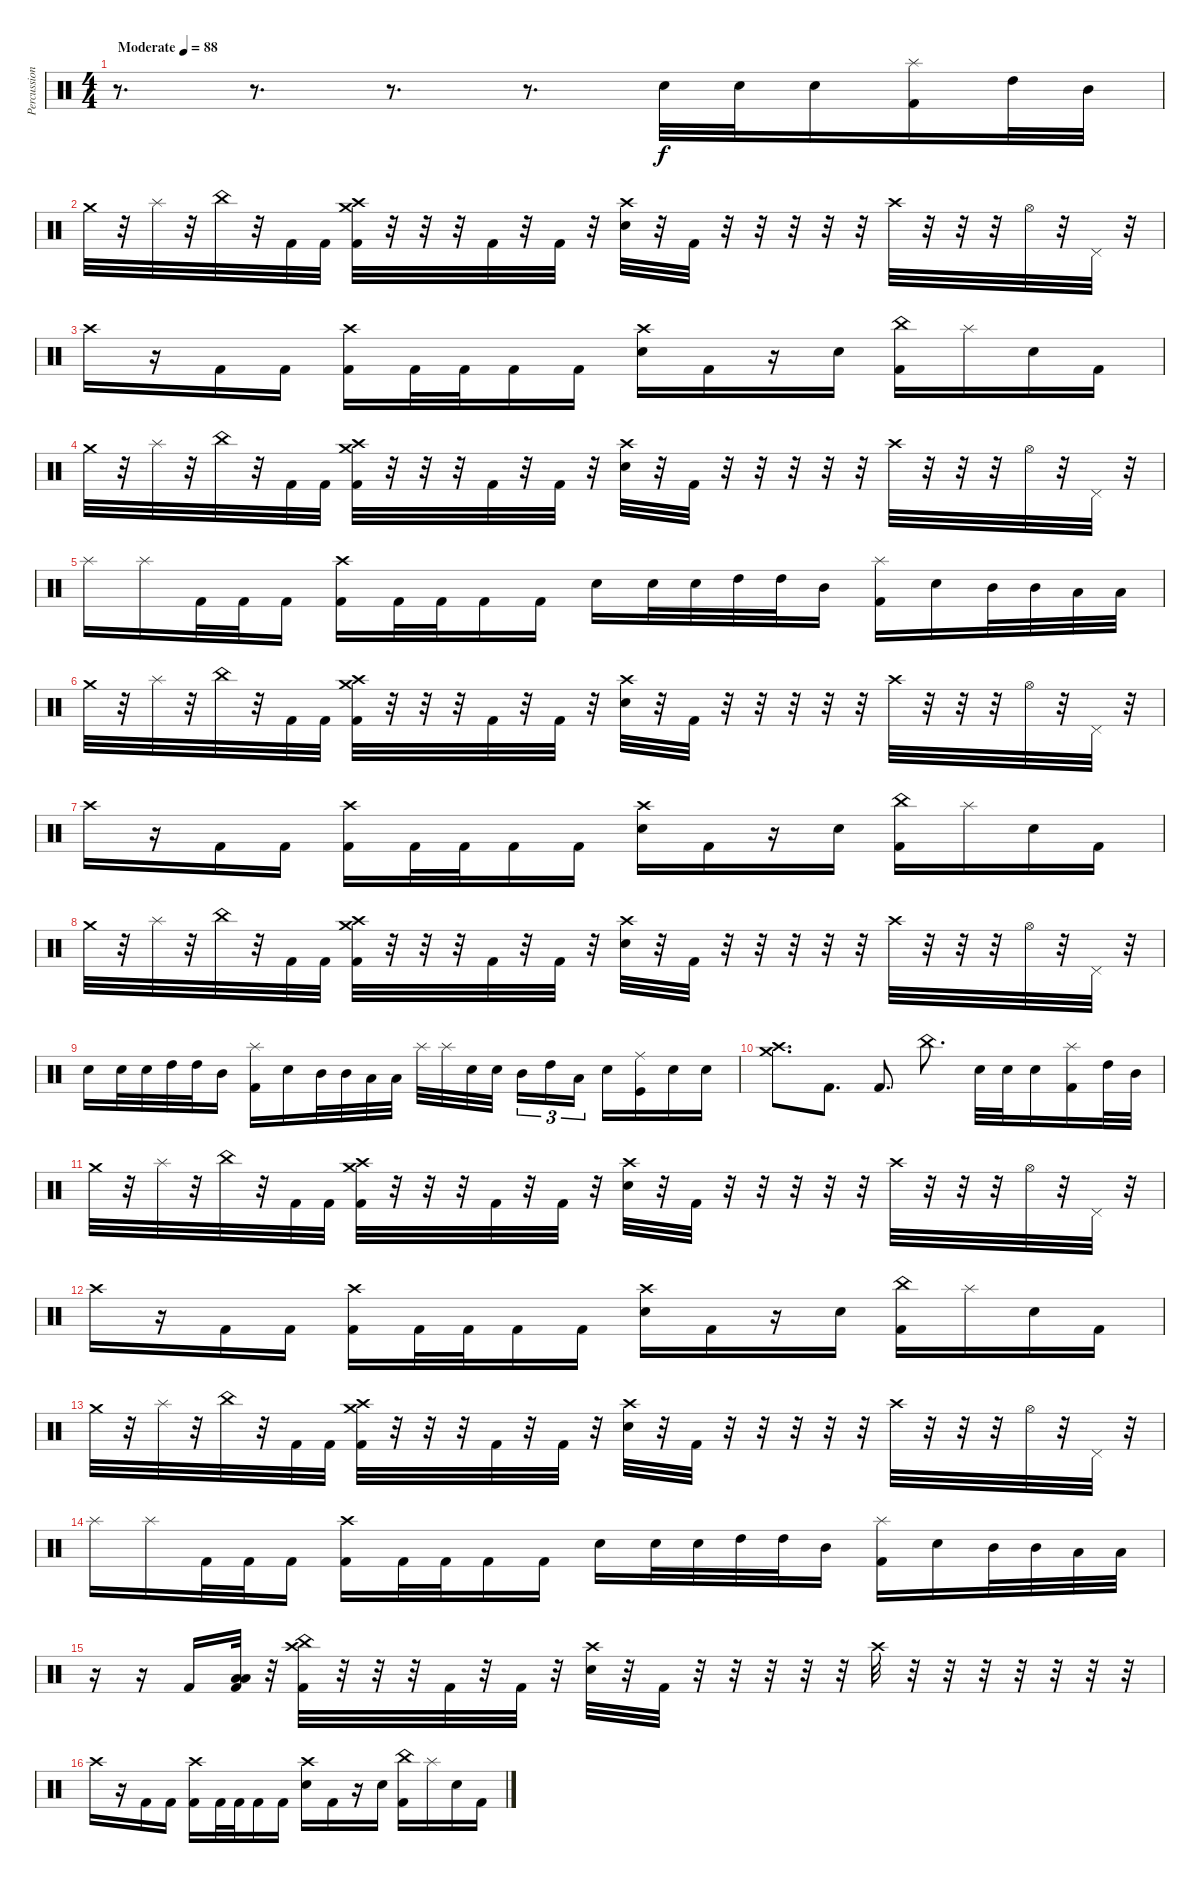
\track ("Percussion" "Percussion") {instrument percussion}
\staff {score}
\articulation defaults
\ts (4 4)
\tempo (88 "Moderate")
\clef neutral
\ks c
r.8{d dy f} r.8{d} r.8{d} r.8{d} "Snare (hit) 2".32 "Snare (hit) 2".32 "Snare (hit) 2".16 ("Splash (hit)" "Kick (hit) 2").16 "High Tom (hit)".32 "Mid Tom (hit)".32 |
"Crash medium (hit)".32 r.32 "Splash (hit)".32 r.32 "China (hit)".32 r.32 "Kick (hit) 2".32 "Kick (hit) 2".32 ("Crash high (hit)" "Crash medium (hit)" "Kick (hit) 2").32 r.32 r.32 r.32 "Kick (hit) 2".32 r.32 "Kick (hit) 2".32 r.32 ("Crash high (hit)" "Snare (hit) 2").32 r.32 "Kick (hit) 2".32 r.32 r.32 r.32 r.32 r.32 "Crash high (hit)".32 r.32 r.32 r.32 "Hi-Hat (open)".32 r.32 "Pedal Hi-Hat (hit)".32 r.32 |
"Crash high (hit)".16 r.16 "Kick (hit) 2".16 "Kick (hit) 2".16 ("Crash high (hit)" "Kick (hit) 2").16 "Kick (hit) 2".32 "Kick (hit) 2".32 "Kick (hit) 2".16 "Kick (hit) 2".16 ("Crash high (hit)" "Snare (hit) 2").16 "Kick (hit) 2".16 r.16 "Snare (hit) 2".16 ("China (hit)" "Kick (hit) 2").16 "Splash (hit)".16 "Snare (hit) 2".16 "Kick (hit) 2".16 |
"Crash medium (hit)".32 r.32 "Splash (hit)".32 r.32 "China (hit)".32 r.32 "Kick (hit) 2".32 "Kick (hit) 2".32 ("Crash high (hit)" "Crash medium (hit)" "Kick (hit) 2").32 r.32 r.32 r.32 "Kick (hit) 2".32 r.32 "Kick (hit) 2".32 r.32 ("Crash high (hit)" "Snare (hit) 2").32 r.32 "Kick (hit) 2".32 r.32 r.32 r.32 r.32 r.32 "Crash high (hit)".32 r.32 r.32 r.32 "Hi-Hat (open)".32 r.32 "Pedal Hi-Hat (hit)".32 r.32 |
"Splash (hit)".16 "Splash (hit)".16 "Kick (hit) 2".32 "Kick (hit) 2".32 "Kick (hit) 2".16 ("Crash high (hit)" "Kick (hit) 2").16 "Kick (hit) 2".32 "Kick (hit) 2".32 "Kick (hit) 2".16 "Kick (hit) 2".16 "Snare (hit) 2".16 "Snare (hit) 2".32 "Snare (hit) 2".32 "High Tom (hit)".32 "High Tom (hit)".32 "Mid Tom (hit)".16 ("Splash (hit)" "Kick (hit) 2").16 "Snare (hit) 2".16 "Mid Tom (hit)".32 "Mid Tom (hit)".32 "Low Tom (hit)".32 "Low Tom (hit)".32 |
"Crash medium (hit)".32 r.32 "Splash (hit)".32 r.32 "China (hit)".32 r.32 "Kick (hit) 2".32 "Kick (hit) 2".32 ("Crash high (hit)" "Crash medium (hit)" "Kick (hit) 2").32 r.32 r.32 r.32 "Kick (hit) 2".32 r.32 "Kick (hit) 2".32 r.32 ("Crash high (hit)" "Snare (hit) 2").32 r.32 "Kick (hit) 2".32 r.32 r.32 r.32 r.32 r.32 "Crash high (hit)".32 r.32 r.32 r.32 "Hi-Hat (open)".32 r.32 "Pedal Hi-Hat (hit)".32 r.32 |
"Crash high (hit)".16 r.16 "Kick (hit) 2".16 "Kick (hit) 2".16 ("Crash high (hit)" "Kick (hit) 2").16 "Kick (hit) 2".32 "Kick (hit) 2".32 "Kick (hit) 2".16 "Kick (hit) 2".16 ("Crash high (hit)" "Snare (hit) 2").16 "Kick (hit) 2".16 r.16 "Snare (hit) 2".16 ("China (hit)" "Kick (hit) 2").16 "Splash (hit)".16 "Snare (hit) 2".16 "Kick (hit) 2".16 |
"Crash medium (hit)".32 r.32 "Splash (hit)".32 r.32 "China (hit)".32 r.32 "Kick (hit) 2".32 "Kick (hit) 2".32 ("Crash high (hit)" "Crash medium (hit)" "Kick (hit) 2").32 r.32 r.32 r.32 "Kick (hit) 2".32 r.32 "Kick (hit) 2".32 r.32 ("Crash high (hit)" "Snare (hit) 2").32 r.32 "Kick (hit) 2".32 r.32 r.32 r.32 r.32 r.32 "Crash high (hit)".32 r.32 r.32 r.32 "Hi-Hat (open)".32 r.32 "Pedal Hi-Hat (hit)".32 r.32 |
"Snare (hit) 2".16 "Snare (hit) 2".32 "Snare (hit) 2".32 "High Tom (hit)".32 "High Tom (hit)".32 "Mid Tom (hit)".16 ("Splash (hit)" "Kick (hit) 2").16 "Snare (hit) 2".16 "Mid Tom (hit)".32 "Mid Tom (hit)".32 "Low Tom (hit)".32 "Low Tom (hit)".32 "Splash (hit)".32 "Splash (hit)".32 "Snare (hit) 2".32 "Snare (hit) 2".32{beam splitsecondary} "Mid Tom (hit)".16{tu (3 2)} "High Tom (hit)".16{tu (3 2)} "Low Tom (hit)".16{tu (3 2)} "Snare (hit) 2".16 ("Ride (middle)" "Kick (hit)").16 "Snare (hit) 2".16 "Snare (hit) 2".16 |
("Crash high (hit)" "Crash medium (hit)").8{d} "Kick (hit) 2".8{d} "Kick (hit) 2".8{d} "China (hit)".8{d} "Snare (hit) 2".32 "Snare (hit) 2".32 "Snare (hit) 2".16 ("Splash (hit)" "Kick (hit) 2").16 "High Tom (hit)".32 "Mid Tom (hit)".32 |
"Crash medium (hit)".32 r.32 "Splash (hit)".32 r.32 "China (hit)".32 r.32 "Kick (hit) 2".32 "Kick (hit) 2".32 ("Crash high (hit)" "Crash medium (hit)" "Kick (hit) 2").32 r.32 r.32 r.32 "Kick (hit) 2".32 r.32 "Kick (hit) 2".32 r.32 ("Crash high (hit)" "Snare (hit) 2").32 r.32 "Kick (hit) 2".32 r.32 r.32 r.32 r.32 r.32 "Crash high (hit)".32 r.32 r.32 r.32 "Hi-Hat (open)".32 r.32 "Pedal Hi-Hat (hit)".32 r.32 |
"Crash high (hit)".16 r.16 "Kick (hit) 2".16 "Kick (hit) 2".16 ("Crash high (hit)" "Kick (hit) 2").16 "Kick (hit) 2".32 "Kick (hit) 2".32 "Kick (hit) 2".16 "Kick (hit) 2".16 ("Crash high (hit)" "Snare (hit) 2").16 "Kick (hit) 2".16 r.16 "Snare (hit) 2".16 ("China (hit)" "Kick (hit) 2").16 "Splash (hit)".16 "Snare (hit) 2".16 "Kick (hit) 2".16 |
"Crash medium (hit)".32 r.32 "Splash (hit)".32 r.32 "China (hit)".32 r.32 "Kick (hit) 2".32 "Kick (hit) 2".32 ("Crash high (hit)" "Crash medium (hit)" "Kick (hit) 2").32 r.32 r.32 r.32 "Kick (hit) 2".32 r.32 "Kick (hit) 2".32 r.32 ("Crash high (hit)" "Snare (hit) 2").32 r.32 "Kick (hit) 2".32 r.32 r.32 r.32 r.32 r.32 "Crash high (hit)".32 r.32 r.32 r.32 "Hi-Hat (open)".32 r.32 "Pedal Hi-Hat (hit)".32 r.32 |
"Splash (hit)".16 "Splash (hit)".16 "Kick (hit) 2".32 "Kick (hit) 2".32 "Kick (hit) 2".16 ("Crash high (hit)" "Kick (hit) 2").16 "Kick (hit) 2".32 "Kick (hit) 2".32 "Kick (hit) 2".16 "Kick (hit) 2".16 "Snare (hit) 2".16 "Snare (hit) 2".32 "Snare (hit) 2".32 "High Tom (hit)".32 "High Tom (hit)".32 "Mid Tom (hit)".16 ("Splash (hit)" "Kick (hit) 2").16 "Snare (hit) 2".16 "Mid Tom (hit)".32 "Mid Tom (hit)".32 "Low Tom (hit)".32 "Low Tom (hit)".32 |
r.16 r.16 "Kick (hit) 2".16 ("Low Tom (hit)" "Low Floor Tom (hit)" "Kick (hit) 2").32 r.32 ("Crash high (hit)" "China (hit)" "Kick (hit) 2").32 r.32 r.32 r.32 "Kick (hit) 2".32 r.32 "Kick (hit) 2".32 r.32 ("Crash high (hit)" "Snare (hit) 2").32 r.32 "Kick (hit) 2".32 r.32 r.32 r.32 r.32 r.32 "Crash high (hit)".32 r.32 r.32 r.32 r.32 r.32 r.32 r.32 |
"Crash high (hit)".16 r.16 "Kick (hit) 2".16 "Kick (hit) 2".16 ("Crash high (hit)" "Kick (hit) 2").16 "Kick (hit) 2".32 "Kick (hit) 2".32 "Kick (hit) 2".16 "Kick (hit) 2".16 ("Crash high (hit)" "Snare (hit) 2").16 "Kick (hit) 2".16 r.16 "Snare (hit) 2".16 ("China (hit)" "Kick (hit) 2").16 "Splash (hit)".16 "Snare (hit) 2".16 "Kick (hit) 2".16
